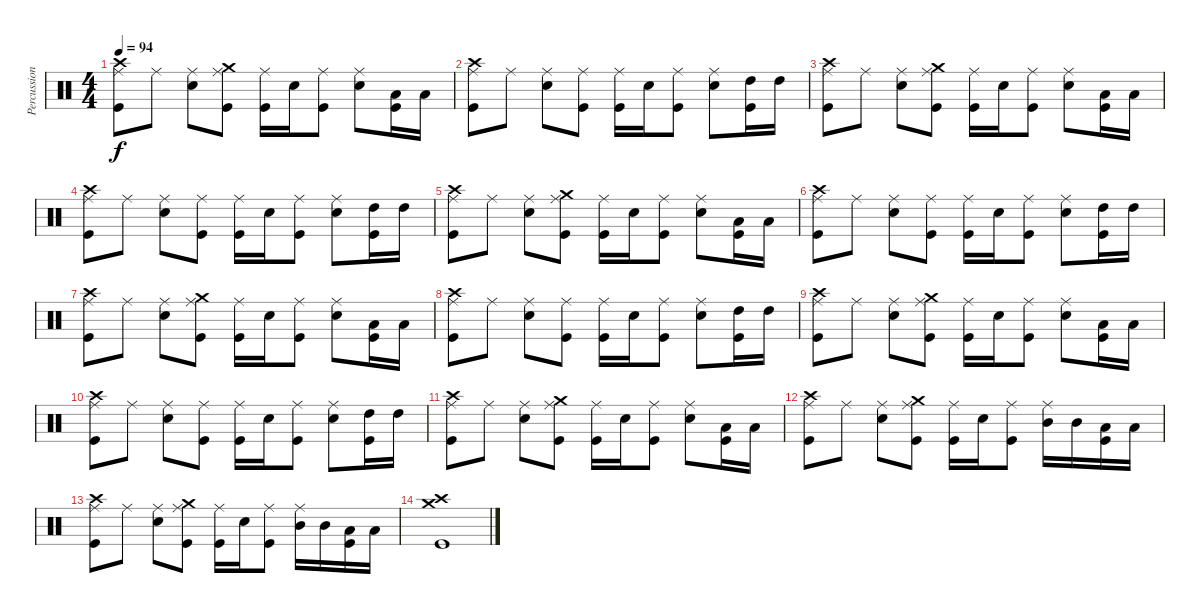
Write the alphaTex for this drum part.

\track ("Percussions" "Percussion") {instrument percussion}
\staff {score}
\articulation defaults
\ts (4 4)
\tempo 94
\clef neutral
\ks c
("Kick (hit)" "Crash high (hit)" "Ride (middle)").8{dy f} "Ride (middle)".8 ("Electric Snare (hit)" "Ride (middle)").8 ("Crash medium (hit)" "Kick (hit)" "Ride (middle)").8 ("Kick (hit)" "Ride (middle)").16 "Electric Snare (hit)".16 ("Kick (hit)" "Ride (middle)").8 ("Electric Snare (hit)" "Ride (middle)").8 ("Low Floor Tom (hit)" "Kick (hit)").16 "Low Floor Tom (hit)".16 |
("Kick (hit)" "Crash high (hit)" "Ride (middle)").8 "Ride (middle)".8 ("Electric Snare (hit)" "Ride (middle)").8 ("Kick (hit)" "Ride (middle)").8 ("Kick (hit)" "Ride (middle)").16 "Electric Snare (hit)".16 ("Kick (hit)" "Ride (middle)").8 ("Electric Snare (hit)" "Ride (middle)").8 ("High Tom (hit)" "Kick (hit)").16 "High Tom (hit)".16 |
("Kick (hit)" "Crash high (hit)" "Ride (middle)").8 "Ride (middle)".8 ("Electric Snare (hit)" "Ride (middle)").8 ("Crash medium (hit)" "Kick (hit)" "Ride (middle)").8 ("Kick (hit)" "Ride (middle)").16 "Electric Snare (hit)".16 ("Kick (hit)" "Ride (middle)").8 ("Electric Snare (hit)" "Ride (middle)").8 ("Low Floor Tom (hit)" "Kick (hit)").16 "Low Floor Tom (hit)".16 |
("Kick (hit)" "Crash high (hit)" "Ride (middle)").8 "Ride (middle)".8 ("Electric Snare (hit)" "Ride (middle)").8 ("Kick (hit)" "Ride (middle)").8 ("Kick (hit)" "Ride (middle)").16 "Electric Snare (hit)".16 ("Kick (hit)" "Ride (middle)").8 ("Electric Snare (hit)" "Ride (middle)").8 ("High Tom (hit)" "Kick (hit)").16 "High Tom (hit)".16 |
("Kick (hit)" "Crash high (hit)" "Ride (middle)").8 "Ride (middle)".8 ("Electric Snare (hit)" "Ride (middle)").8 ("Crash medium (hit)" "Kick (hit)" "Ride (middle)").8 ("Kick (hit)" "Ride (middle)").16 "Electric Snare (hit)".16 ("Kick (hit)" "Ride (middle)").8 ("Electric Snare (hit)" "Ride (middle)").8 ("Low Floor Tom (hit)" "Kick (hit)").16 "Low Floor Tom (hit)".16 |
("Kick (hit)" "Crash high (hit)" "Ride (middle)").8 "Ride (middle)".8 ("Electric Snare (hit)" "Ride (middle)").8 ("Kick (hit)" "Ride (middle)").8 ("Kick (hit)" "Ride (middle)").16 "Electric Snare (hit)".16 ("Kick (hit)" "Ride (middle)").8 ("Electric Snare (hit)" "Ride (middle)").8 ("High Tom (hit)" "Kick (hit)").16 "High Tom (hit)".16 |
("Kick (hit)" "Crash high (hit)" "Ride (middle)").8 "Ride (middle)".8 ("Electric Snare (hit)" "Ride (middle)").8 ("Crash medium (hit)" "Kick (hit)" "Ride (middle)").8 ("Kick (hit)" "Ride (middle)").16 "Electric Snare (hit)".16 ("Kick (hit)" "Ride (middle)").8 ("Electric Snare (hit)" "Ride (middle)").8 ("Low Floor Tom (hit)" "Kick (hit)").16 "Low Floor Tom (hit)".16 |
("Kick (hit)" "Crash high (hit)" "Ride (middle)").8 "Ride (middle)".8 ("Electric Snare (hit)" "Ride (middle)").8 ("Kick (hit)" "Ride (middle)").8 ("Kick (hit)" "Ride (middle)").16 "Electric Snare (hit)".16 ("Kick (hit)" "Ride (middle)").8 ("Electric Snare (hit)" "Ride (middle)").8 ("High Tom (hit)" "Kick (hit)").16 "High Tom (hit)".16 |
("Kick (hit)" "Crash high (hit)" "Ride (middle)").8 "Ride (middle)".8 ("Electric Snare (hit)" "Ride (middle)").8 ("Crash medium (hit)" "Kick (hit)" "Ride (middle)").8 ("Kick (hit)" "Ride (middle)").16 "Electric Snare (hit)".16 ("Kick (hit)" "Ride (middle)").8 ("Electric Snare (hit)" "Ride (middle)").8 ("Low Floor Tom (hit)" "Kick (hit)").16 "Low Floor Tom (hit)".16 |
("Kick (hit)" "Crash high (hit)" "Ride (middle)").8 "Ride (middle)".8 ("Electric Snare (hit)" "Ride (middle)").8 ("Kick (hit)" "Ride (middle)").8 ("Kick (hit)" "Ride (middle)").16 "Electric Snare (hit)".16 ("Kick (hit)" "Ride (middle)").8 ("Electric Snare (hit)" "Ride (middle)").8 ("High Tom (hit)" "Kick (hit)").16 "High Tom (hit)".16 |
("Kick (hit)" "Crash high (hit)" "Ride (middle)").8 "Ride (middle)".8 ("Electric Snare (hit)" "Ride (middle)").8 ("Crash medium (hit)" "Kick (hit)" "Ride (middle)").8 ("Kick (hit)" "Ride (middle)").16 "Electric Snare (hit)".16 ("Kick (hit)" "Ride (middle)").8 ("Electric Snare (hit)" "Ride (middle)").8 ("Low Floor Tom (hit)" "Kick (hit)").16 "Low Floor Tom (hit)".16 |
("Kick (hit)" "Crash high (hit)" "Ride (middle)").8 "Ride (middle)".8 ("Electric Snare (hit)" "Ride (middle)").8 ("Crash medium (hit)" "Kick (hit)" "Ride (middle)").8 ("Kick (hit)" "Ride (middle)").16 "Electric Snare (hit)".16 ("Kick (hit)" "Ride (middle)").8 ("Mid Tom (hit)" "Ride (middle)").16 "Mid Tom (hit)".16 ("Low Tom (hit)" "Kick (hit)").16 "Low Tom (hit)".16 |
("Kick (hit)" "Crash high (hit)" "Ride (middle)").8 "Ride (middle)".8 ("Electric Snare (hit)" "Ride (middle)").8 ("Crash medium (hit)" "Kick (hit)" "Ride (middle)").8 ("Kick (hit)" "Ride (middle)").16 "Electric Snare (hit)".16 ("Kick (hit)" "Ride (middle)").8 ("Mid Tom (hit)" "Ride (middle)").16 "Mid Tom (hit)".16 ("Low Tom (hit)" "Kick (hit)").16 "Low Tom (hit)".16 |
("Crash medium (hit)" "Crash high (hit)" "Kick (hit)").1
